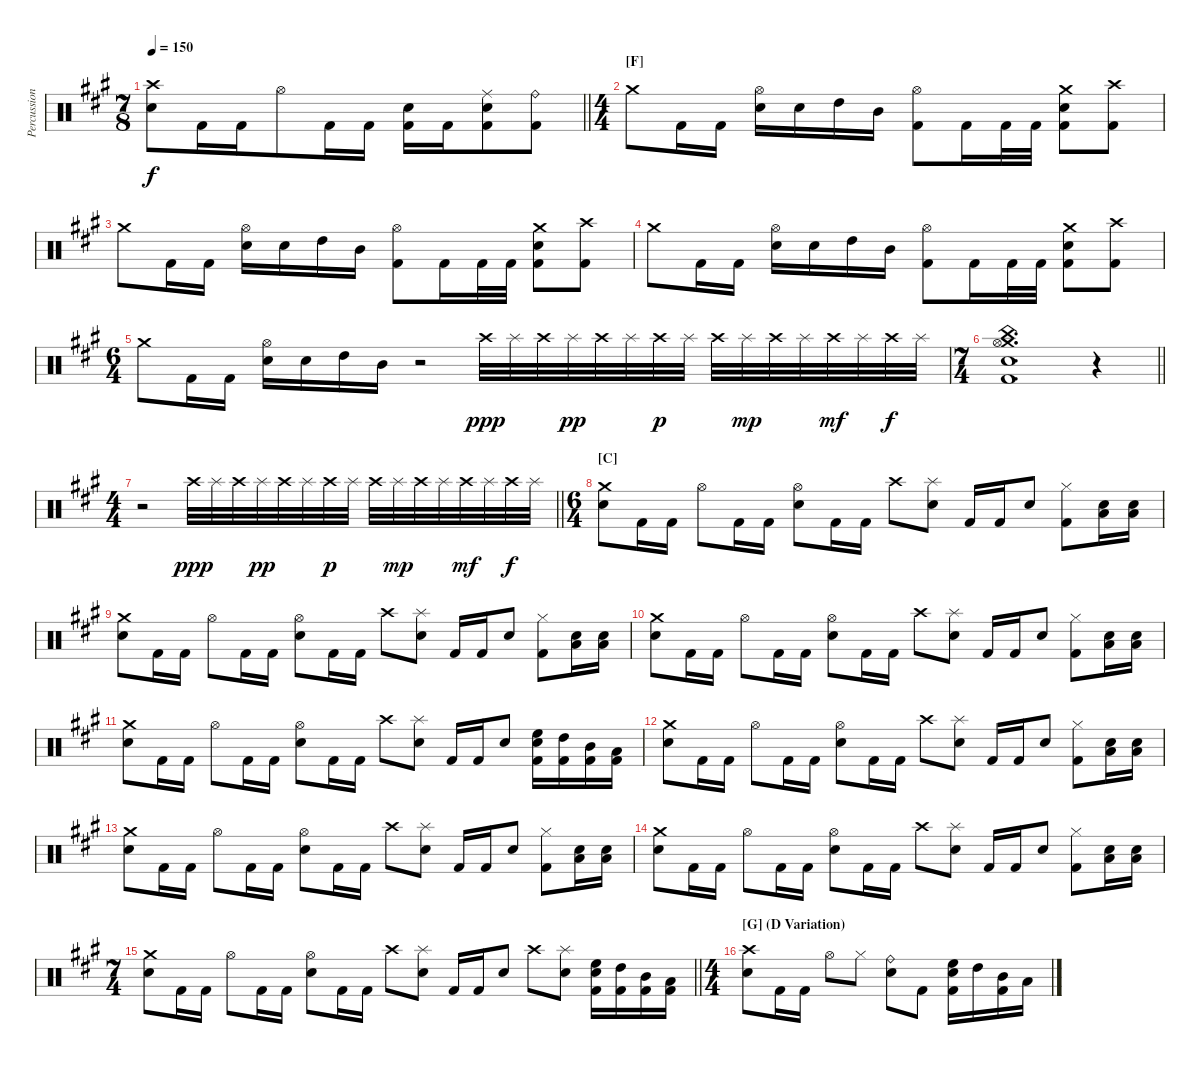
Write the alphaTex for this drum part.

\track ("Percussion" "Percussion") {instrument percussion}
\staff {score}
\articulation defaults
\ts (7 8)
\tempo 150
\clef neutral
\barLineRight lightlight
\ks f#minor
("Crash high (hit)" "Snare (hit) 2").8{dy f} "Kick (hit) 2".16 "Kick (hit) 2".16 "Hi-Hat (open)".8 "Kick (hit) 2".16 "Kick (hit) 2".16 ("Snare (hit) 2" "Kick (hit) 2").16 "Kick (hit) 2".16 ("Ride (middle)" "Snare (hit) 2" "Kick (hit) 2").8 ("Ride (bell)" "Kick (hit) 2").8 |
\ts (4 4)
\section ("" "[F]")
"Crash medium (hit)".8 "Kick (hit) 2".16 "Kick (hit) 2".16 ("Hi-Hat (open)" "Snare (hit) 2").16 "Snare (hit) 2".16 "High Tom (hit)".16 "Mid Tom (hit)".16 ("Hi-Hat (open)" "Kick (hit) 2").8 "Kick (hit) 2".16 "Kick (hit) 2".32 "Kick (hit) 2".32 ("Crash medium (hit)" "Snare (hit) 2" "Kick (hit) 2").8 ("Crash high (hit)" "Kick (hit) 2").8 |
"Crash medium (hit)".8 "Kick (hit) 2".16 "Kick (hit) 2".16 ("Hi-Hat (open)" "Snare (hit) 2").16 "Snare (hit) 2".16 "High Tom (hit)".16 "Mid Tom (hit)".16 ("Hi-Hat (open)" "Kick (hit) 2").8 "Kick (hit) 2".16 "Kick (hit) 2".32 "Kick (hit) 2".32 ("Crash medium (hit)" "Snare (hit) 2" "Kick (hit) 2").8 ("Crash high (hit)" "Kick (hit) 2").8 |
"Crash medium (hit)".8 "Kick (hit) 2".16 "Kick (hit) 2".16 ("Hi-Hat (open)" "Snare (hit) 2").16 "Snare (hit) 2".16 "High Tom (hit)".16 "Mid Tom (hit)".16 ("Hi-Hat (open)" "Kick (hit) 2").8 "Kick (hit) 2".16 "Kick (hit) 2".32 "Kick (hit) 2".32 ("Crash medium (hit)" "Snare (hit) 2" "Kick (hit) 2").8 ("Crash high (hit)" "Kick (hit) 2").8 |
\ts (6 4)
"Crash medium (hit)".8 "Kick (hit) 2".16 "Kick (hit) 2".16 ("Hi-Hat (open)" "Snare (hit) 2").16 "Snare (hit) 2".16 "High Tom (hit)".16 "Mid Tom (hit)".16 r.2 "Crash high (hit)".32{dy ppp} "Splash (hit)".32 "Crash high (hit)".32 "Splash (hit)".32{dy pp} "Crash high (hit)".32 "Splash (hit)".32 "Crash high (hit)".32{dy p} "Splash (hit)".32 "Crash high (hit)".32 "Splash (hit)".32{dy mp} "Crash high (hit)".32 "Splash (hit)".32 "Crash high (hit)".32{dy mf} "Splash (hit)".32 "Crash high (hit)".32{dy f} "Splash (hit)".32 |
\ts (7 4)
\barLineRight lightlight
("Crash medium (hit)" "China (hit)" "Hi-Hat (open)" "Snare (hit) 2" "Kick (hit) 2").1{d} r.4 |
\ts (4 4)
\barLineRight lightlight
r.2 "Crash high (hit)".32{dy ppp} "Splash (hit)".32 "Crash high (hit)".32 "Splash (hit)".32{dy pp} "Crash high (hit)".32 "Splash (hit)".32 "Crash high (hit)".32{dy p} "Splash (hit)".32 "Crash high (hit)".32 "Splash (hit)".32{dy mp} "Crash high (hit)".32 "Splash (hit)".32 "Crash high (hit)".32{dy mf} "Splash (hit)".32 "Crash high (hit)".32{dy f} "Splash (hit)".32 |
\ts (6 4)
\section ("" "[C]")
("Crash medium (hit)" "Snare (hit) 2").8 "Kick (hit) 2".16 "Kick (hit) 2".16 "Hi-Hat (open)".8 "Kick (hit) 2".16 "Kick (hit) 2".16 ("Hi-Hat (open)" "Snare (hit) 2").8 "Kick (hit) 2".16 "Kick (hit) 2".16 "Crash high (hit)".8 ("Splash (hit)" "Snare (hit) 2").8 "Kick (hit) 2".16 "Kick (hit) 2".16 "Snare (hit) 2".8 ("Hi-Hat (closed)" "Kick (hit) 2").8 ("Snare (hit) 2" "Low Floor Tom (hit)").16 ("Snare (hit) 2" "Low Floor Tom (hit)").16 |
("Crash medium (hit)" "Snare (hit) 2").8 "Kick (hit) 2".16 "Kick (hit) 2".16 "Hi-Hat (open)".8 "Kick (hit) 2".16 "Kick (hit) 2".16 ("Hi-Hat (open)" "Snare (hit) 2").8 "Kick (hit) 2".16 "Kick (hit) 2".16 "Crash high (hit)".8 ("Splash (hit)" "Snare (hit) 2").8 "Kick (hit) 2".16 "Kick (hit) 2".16 "Snare (hit) 2".8 ("Hi-Hat (closed)" "Kick (hit) 2").8 ("Snare (hit) 2" "Low Floor Tom (hit)").16 ("Snare (hit) 2" "Low Floor Tom (hit)").16 |
("Crash medium (hit)" "Snare (hit) 2").8 "Kick (hit) 2".16 "Kick (hit) 2".16 "Hi-Hat (open)".8 "Kick (hit) 2".16 "Kick (hit) 2".16 ("Hi-Hat (open)" "Snare (hit) 2").8 "Kick (hit) 2".16 "Kick (hit) 2".16 "Crash high (hit)".8 ("Splash (hit)" "Snare (hit) 2").8 "Kick (hit) 2".16 "Kick (hit) 2".16 "Snare (hit) 2".8 ("Hi-Hat (closed)" "Kick (hit) 2").8 ("Snare (hit) 2" "Low Floor Tom (hit)").16 ("Snare (hit) 2" "Low Floor Tom (hit)").16 |
("Crash medium (hit)" "Snare (hit) 2").8 "Kick (hit) 2".16 "Kick (hit) 2".16 "Hi-Hat (open)".8 "Kick (hit) 2".16 "Kick (hit) 2".16 ("Hi-Hat (open)" "Snare (hit) 2").8 "Kick (hit) 2".16 "Kick (hit) 2".16 "Crash high (hit)".8 ("Splash (hit)" "Snare (hit) 2").8 "Kick (hit) 2".16 "Kick (hit) 2".16 "Snare (hit) 2".8 ("High Floor Tom (hit)" "Snare (hit) 2" "Kick (hit) 2").16 ("High Tom (hit)" "Kick (hit) 2").16 ("Mid Tom (hit)" "Kick (hit) 2").16 ("Low Tom (hit)" "Kick (hit) 2").16 |
("Crash medium (hit)" "Snare (hit) 2").8 "Kick (hit) 2".16 "Kick (hit) 2".16 "Hi-Hat (open)".8 "Kick (hit) 2".16 "Kick (hit) 2".16 ("Hi-Hat (open)" "Snare (hit) 2").8 "Kick (hit) 2".16 "Kick (hit) 2".16 "Crash high (hit)".8 ("Splash (hit)" "Snare (hit) 2").8 "Kick (hit) 2".16 "Kick (hit) 2".16 "Snare (hit) 2".8 ("Hi-Hat (closed)" "Kick (hit) 2").8 ("Snare (hit) 2" "Low Floor Tom (hit)").16 ("Snare (hit) 2" "Low Floor Tom (hit)").16 |
("Crash medium (hit)" "Snare (hit) 2").8 "Kick (hit) 2".16 "Kick (hit) 2".16 "Hi-Hat (open)".8 "Kick (hit) 2".16 "Kick (hit) 2".16 ("Hi-Hat (open)" "Snare (hit) 2").8 "Kick (hit) 2".16 "Kick (hit) 2".16 "Crash high (hit)".8 ("Splash (hit)" "Snare (hit) 2").8 "Kick (hit) 2".16 "Kick (hit) 2".16 "Snare (hit) 2".8 ("Hi-Hat (closed)" "Kick (hit) 2").8 ("Snare (hit) 2" "Low Floor Tom (hit)").16 ("Snare (hit) 2" "Low Floor Tom (hit)").16 |
("Crash medium (hit)" "Snare (hit) 2").8 "Kick (hit) 2".16 "Kick (hit) 2".16 "Hi-Hat (open)".8 "Kick (hit) 2".16 "Kick (hit) 2".16 ("Hi-Hat (open)" "Snare (hit) 2").8 "Kick (hit) 2".16 "Kick (hit) 2".16 "Crash high (hit)".8 ("Splash (hit)" "Snare (hit) 2").8 "Kick (hit) 2".16 "Kick (hit) 2".16 "Snare (hit) 2".8 ("Hi-Hat (closed)" "Kick (hit) 2").8 ("Snare (hit) 2" "Low Floor Tom (hit)").16 ("Snare (hit) 2" "Low Floor Tom (hit)").16 |
\ts (7 4)
\barLineRight lightlight
("Crash medium (hit)" "Snare (hit) 2").8 "Kick (hit) 2".16 "Kick (hit) 2".16 "Hi-Hat (open)".8 "Kick (hit) 2".16 "Kick (hit) 2".16 ("Hi-Hat (open)" "Snare (hit) 2").8 "Kick (hit) 2".16 "Kick (hit) 2".16 "Crash high (hit)".8 ("Splash (hit)" "Snare (hit) 2").8 "Kick (hit) 2".16 "Kick (hit) 2".16 "Snare (hit) 2".8 "Crash high (hit)".8 ("Splash (hit)" "Snare (hit) 2").8 ("High Floor Tom (hit)" "Snare (hit) 2" "Kick (hit) 2").16 ("High Tom (hit)" "Kick (hit) 2").16 ("Mid Tom (hit)" "Kick (hit) 2").16 ("Low Tom (hit)" "Kick (hit) 2").16 |
\ts (4 4)
\section ("" "[G] (D Variation)")
("Crash high (hit)" "Snare (hit) 2").8 "Kick (hit) 2".16 "Kick (hit) 2".16 "Hi-Hat (open)".8 "Hi-Hat (closed)".8 ("Ride (bell)" "Snare (hit) 2").8 "Kick (hit) 2".8 ("High Floor Tom (hit)" "Snare (hit) 2" "Kick (hit) 2").16 "High Tom (hit)".16 ("Mid Tom (hit)" "Kick (hit) 2").16 "Low Tom (hit)".16
